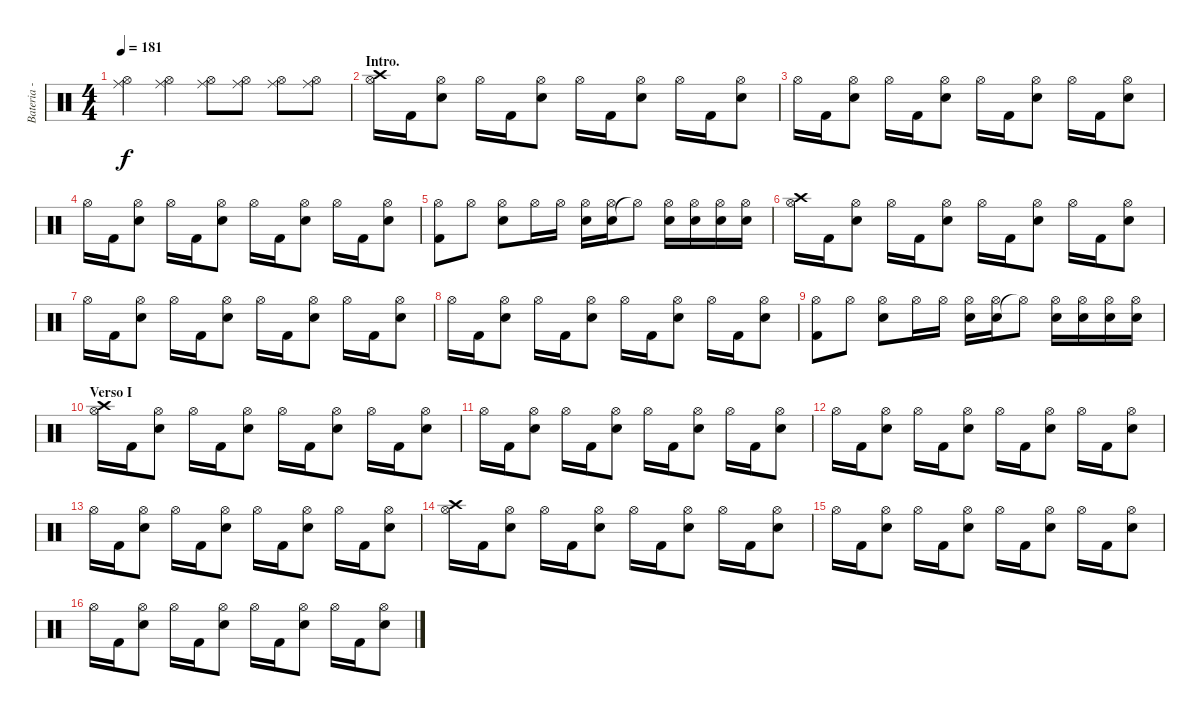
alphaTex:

\track ("Bateria - Larzon" "Bateria - ") {instrument percussion}
\staff {score}
\articulation defaults
\ts (4 4)
\tempo 181
\clef neutral
\ks c
("Hi-Hat (open)" "Ride (middle)").4{dy f} ("Hi-Hat (open)" "Ride (middle)").4 ("Hi-Hat (open)" "Ride (middle)").8 ("Hi-Hat (open)" "Ride (middle)").8 ("Hi-Hat (open)" "Ride (middle)").8 ("Hi-Hat (open)" "Ride (middle)").8 |
\section ("" "Intro.")
("Crash high (hit)" "Hi-Hat (open)").16 "Kick (hit) 2".16 ("Electric Snare (hit)" "Hi-Hat (open)").8 "Hi-Hat (open)".16 "Kick (hit) 2".16 ("Electric Snare (hit)" "Hi-Hat (open)").8 "Hi-Hat (open)".16 "Kick (hit) 2".16 ("Electric Snare (hit)" "Hi-Hat (open)").8 "Hi-Hat (open)".16 "Kick (hit) 2".16 ("Electric Snare (hit)" "Hi-Hat (open)").8 |
"Hi-Hat (open)".16 "Kick (hit) 2".16 ("Electric Snare (hit)" "Hi-Hat (open)").8 "Hi-Hat (open)".16 "Kick (hit) 2".16 ("Electric Snare (hit)" "Hi-Hat (open)").8 "Hi-Hat (open)".16 "Kick (hit) 2".16 ("Electric Snare (hit)" "Hi-Hat (open)").8 "Hi-Hat (open)".16 "Kick (hit) 2".16 ("Electric Snare (hit)" "Hi-Hat (open)").8 |
"Hi-Hat (open)".16 "Kick (hit) 2".16 ("Electric Snare (hit)" "Hi-Hat (open)").8 "Hi-Hat (open)".16 "Kick (hit) 2".16 ("Electric Snare (hit)" "Hi-Hat (open)").8 "Hi-Hat (open)".16 "Kick (hit) 2".16 ("Electric Snare (hit)" "Hi-Hat (open)").8 "Hi-Hat (open)".16 "Kick (hit) 2".16 ("Electric Snare (hit)" "Hi-Hat (open)").8 |
("Kick (hit) 2" "Hi-Hat (open)").8 "Hi-Hat (open)".8 ("Electric Snare (hit)" "Hi-Hat (open)").8 "Hi-Hat (open)".16 "Hi-Hat (open)".16 ("Electric Snare (hit)" "Hi-Hat (open)").16 ("Electric Snare (hit)" "Hi-Hat (open)").16 "Hi-Hat (open)"{t}.8 ("Electric Snare (hit)" "Hi-Hat (open)").16 ("Electric Snare (hit)" "Hi-Hat (open)").16 ("Electric Snare (hit)" "Hi-Hat (open)").16 ("Electric Snare (hit)" "Hi-Hat (open)").16 |
("Crash high (hit)" "Hi-Hat (open)").16 "Kick (hit) 2".16 ("Electric Snare (hit)" "Hi-Hat (open)").8 "Hi-Hat (open)".16 "Kick (hit) 2".16 ("Electric Snare (hit)" "Hi-Hat (open)").8 "Hi-Hat (open)".16 "Kick (hit) 2".16 ("Electric Snare (hit)" "Hi-Hat (open)").8 "Hi-Hat (open)".16 "Kick (hit) 2".16 ("Electric Snare (hit)" "Hi-Hat (open)").8 |
"Hi-Hat (open)".16 "Kick (hit) 2".16 ("Electric Snare (hit)" "Hi-Hat (open)").8 "Hi-Hat (open)".16 "Kick (hit) 2".16 ("Electric Snare (hit)" "Hi-Hat (open)").8 "Hi-Hat (open)".16 "Kick (hit) 2".16 ("Electric Snare (hit)" "Hi-Hat (open)").8 "Hi-Hat (open)".16 "Kick (hit) 2".16 ("Electric Snare (hit)" "Hi-Hat (open)").8 |
"Hi-Hat (open)".16 "Kick (hit) 2".16 ("Electric Snare (hit)" "Hi-Hat (open)").8 "Hi-Hat (open)".16 "Kick (hit) 2".16 ("Electric Snare (hit)" "Hi-Hat (open)").8 "Hi-Hat (open)".16 "Kick (hit) 2".16 ("Electric Snare (hit)" "Hi-Hat (open)").8 "Hi-Hat (open)".16 "Kick (hit) 2".16 ("Electric Snare (hit)" "Hi-Hat (open)").8 |
("Kick (hit) 2" "Hi-Hat (open)").8 "Hi-Hat (open)".8 ("Electric Snare (hit)" "Hi-Hat (open)").8 "Hi-Hat (open)".16 "Hi-Hat (open)".16 ("Electric Snare (hit)" "Hi-Hat (open)").16 ("Electric Snare (hit)" "Hi-Hat (open)").16 "Hi-Hat (open)"{t}.8 ("Electric Snare (hit)" "Hi-Hat (open)").16 ("Electric Snare (hit)" "Hi-Hat (open)").16 ("Electric Snare (hit)" "Hi-Hat (open)").16 ("Electric Snare (hit)" "Hi-Hat (open)").16 |
\section ("" "Verso I")
("Crash high (hit)" "Hi-Hat (open)").16 "Kick (hit) 2".16 ("Electric Snare (hit)" "Hi-Hat (open)").8 "Hi-Hat (open)".16 "Kick (hit) 2".16 ("Electric Snare (hit)" "Hi-Hat (open)").8 "Hi-Hat (open)".16 "Kick (hit) 2".16 ("Electric Snare (hit)" "Hi-Hat (open)").8 "Hi-Hat (open)".16 "Kick (hit) 2".16 ("Electric Snare (hit)" "Hi-Hat (open)").8 |
"Hi-Hat (open)".16 "Kick (hit) 2".16 ("Electric Snare (hit)" "Hi-Hat (open)").8 "Hi-Hat (open)".16 "Kick (hit) 2".16 ("Electric Snare (hit)" "Hi-Hat (open)").8 "Hi-Hat (open)".16 "Kick (hit) 2".16 ("Electric Snare (hit)" "Hi-Hat (open)").8 "Hi-Hat (open)".16 "Kick (hit) 2".16 ("Electric Snare (hit)" "Hi-Hat (open)").8 |
"Hi-Hat (open)".16 "Kick (hit) 2".16 ("Electric Snare (hit)" "Hi-Hat (open)").8 "Hi-Hat (open)".16 "Kick (hit) 2".16 ("Electric Snare (hit)" "Hi-Hat (open)").8 "Hi-Hat (open)".16 "Kick (hit) 2".16 ("Electric Snare (hit)" "Hi-Hat (open)").8 "Hi-Hat (open)".16 "Kick (hit) 2".16 ("Electric Snare (hit)" "Hi-Hat (open)").8 |
"Hi-Hat (open)".16 "Kick (hit) 2".16 ("Electric Snare (hit)" "Hi-Hat (open)").8 "Hi-Hat (open)".16 "Kick (hit) 2".16 ("Electric Snare (hit)" "Hi-Hat (open)").8 "Hi-Hat (open)".16 "Kick (hit) 2".16 ("Electric Snare (hit)" "Hi-Hat (open)").8 "Hi-Hat (open)".16 "Kick (hit) 2".16 ("Electric Snare (hit)" "Hi-Hat (open)").8 |
("Crash high (hit)" "Hi-Hat (open)").16 "Kick (hit) 2".16 ("Electric Snare (hit)" "Hi-Hat (open)").8 "Hi-Hat (open)".16 "Kick (hit) 2".16 ("Electric Snare (hit)" "Hi-Hat (open)").8 "Hi-Hat (open)".16 "Kick (hit) 2".16 ("Electric Snare (hit)" "Hi-Hat (open)").8 "Hi-Hat (open)".16 "Kick (hit) 2".16 ("Electric Snare (hit)" "Hi-Hat (open)").8 |
"Hi-Hat (open)".16 "Kick (hit) 2".16 ("Electric Snare (hit)" "Hi-Hat (open)").8 "Hi-Hat (open)".16 "Kick (hit) 2".16 ("Electric Snare (hit)" "Hi-Hat (open)").8 "Hi-Hat (open)".16 "Kick (hit) 2".16 ("Electric Snare (hit)" "Hi-Hat (open)").8 "Hi-Hat (open)".16 "Kick (hit) 2".16 ("Electric Snare (hit)" "Hi-Hat (open)").8 |
"Hi-Hat (open)".16 "Kick (hit) 2".16 ("Electric Snare (hit)" "Hi-Hat (open)").8 "Hi-Hat (open)".16 "Kick (hit) 2".16 ("Electric Snare (hit)" "Hi-Hat (open)").8 "Hi-Hat (open)".16 "Kick (hit) 2".16 ("Electric Snare (hit)" "Hi-Hat (open)").8 "Hi-Hat (open)".16 "Kick (hit) 2".16 ("Electric Snare (hit)" "Hi-Hat (open)").8
